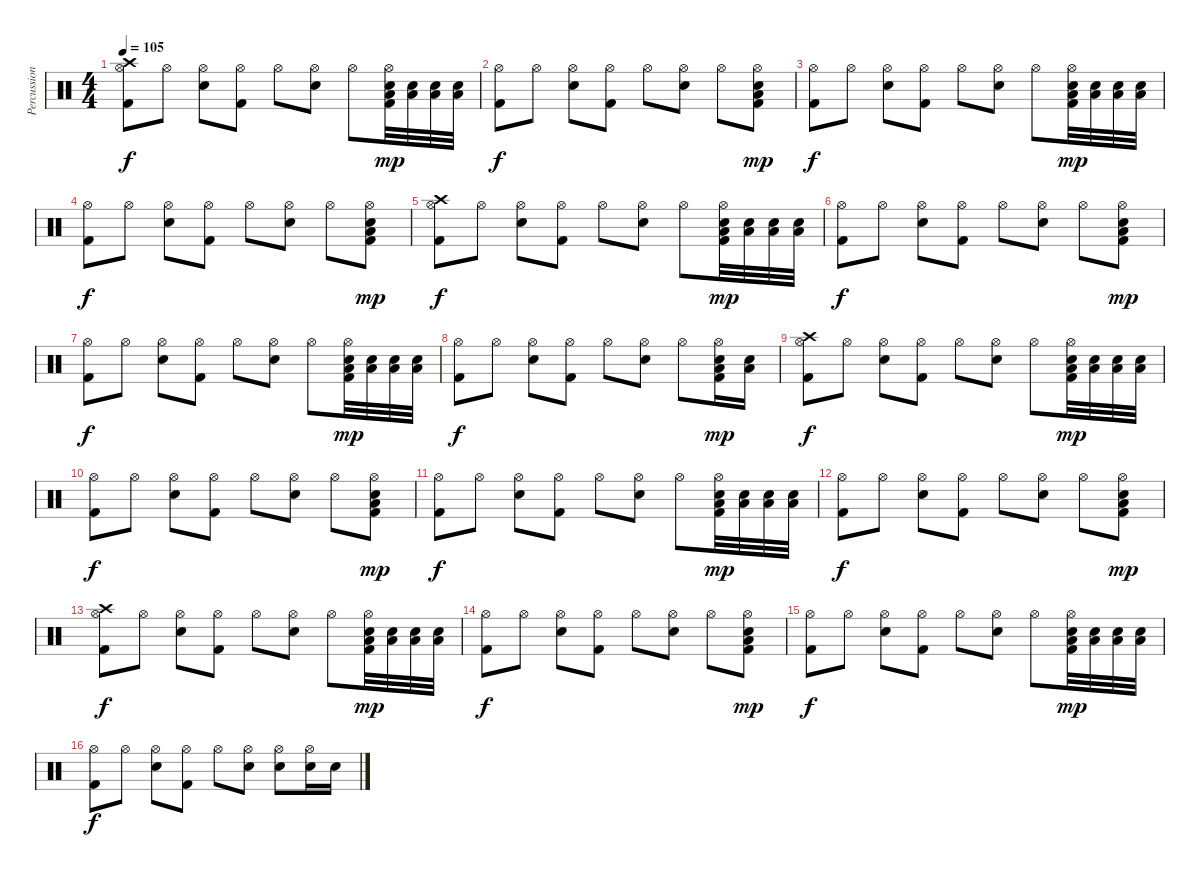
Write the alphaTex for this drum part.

\track ("Percussion" "Percussion") {instrument percussion}
\staff {score}
\articulation defaults
\ts (4 4)
\tempo 105
\clef neutral
\ks c
("Crash high (hit)" "Hi-Hat (open)" "Kick (hit) 2").8{dy f} "Hi-Hat (open)".8 ("Hi-Hat (open)" "Snare (hit) 2").8 ("Hi-Hat (open)" "Kick (hit) 2").8 "Hi-Hat (open)".8 ("Hi-Hat (open)" "Snare (hit) 2").8 "Hi-Hat (open)".8 ("Hi-Hat (open)" "Electric Snare (hit)" "Low Floor Tom (hit)" "Kick (hit) 2").32{dy mp} ("Electric Snare (hit)" "Low Floor Tom (hit)").32 ("Electric Snare (hit)" "Low Floor Tom (hit)").32 ("Electric Snare (hit)" "Low Floor Tom (hit)").32 |
("Hi-Hat (open)" "Kick (hit) 2").8{dy f} "Hi-Hat (open)".8 ("Hi-Hat (open)" "Snare (hit) 2").8 ("Hi-Hat (open)" "Kick (hit) 2").8 "Hi-Hat (open)".8 ("Hi-Hat (open)" "Snare (hit) 2").8 "Hi-Hat (open)".8 ("Hi-Hat (open)" "Electric Snare (hit)" "Low Floor Tom (hit)" "Kick (hit) 2").8{dy mp} |
("Hi-Hat (open)" "Kick (hit) 2").8{dy f} "Hi-Hat (open)".8 ("Hi-Hat (open)" "Snare (hit) 2").8 ("Hi-Hat (open)" "Kick (hit) 2").8 "Hi-Hat (open)".8 ("Hi-Hat (open)" "Snare (hit) 2").8 "Hi-Hat (open)".8 ("Hi-Hat (open)" "Electric Snare (hit)" "Low Floor Tom (hit)" "Kick (hit) 2").32{dy mp} ("Electric Snare (hit)" "Low Floor Tom (hit)").32 ("Electric Snare (hit)" "Low Floor Tom (hit)").32 ("Electric Snare (hit)" "Low Floor Tom (hit)").32 |
("Hi-Hat (open)" "Kick (hit) 2").8{dy f} "Hi-Hat (open)".8 ("Hi-Hat (open)" "Snare (hit) 2").8 ("Hi-Hat (open)" "Kick (hit) 2").8 "Hi-Hat (open)".8 ("Hi-Hat (open)" "Snare (hit) 2").8 "Hi-Hat (open)".8 ("Hi-Hat (open)" "Electric Snare (hit)" "Low Floor Tom (hit)" "Kick (hit) 2").8{dy mp} |
("Crash high (hit)" "Hi-Hat (open)" "Kick (hit) 2").8{dy f} "Hi-Hat (open)".8 ("Hi-Hat (open)" "Snare (hit) 2").8 ("Hi-Hat (open)" "Kick (hit) 2").8 "Hi-Hat (open)".8 ("Hi-Hat (open)" "Snare (hit) 2").8 "Hi-Hat (open)".8 ("Hi-Hat (open)" "Electric Snare (hit)" "Low Floor Tom (hit)" "Kick (hit) 2").32{dy mp} ("Electric Snare (hit)" "Low Floor Tom (hit)").32 ("Electric Snare (hit)" "Low Floor Tom (hit)").32 ("Electric Snare (hit)" "Low Floor Tom (hit)").32 |
("Hi-Hat (open)" "Kick (hit) 2").8{dy f} "Hi-Hat (open)".8 ("Hi-Hat (open)" "Snare (hit) 2").8 ("Hi-Hat (open)" "Kick (hit) 2").8 "Hi-Hat (open)".8 ("Hi-Hat (open)" "Snare (hit) 2").8 "Hi-Hat (open)".8 ("Hi-Hat (open)" "Electric Snare (hit)" "Low Floor Tom (hit)" "Kick (hit) 2").8{dy mp} |
("Hi-Hat (open)" "Kick (hit) 2").8{dy f} "Hi-Hat (open)".8 ("Hi-Hat (open)" "Snare (hit) 2").8 ("Hi-Hat (open)" "Kick (hit) 2").8 "Hi-Hat (open)".8 ("Hi-Hat (open)" "Snare (hit) 2").8 "Hi-Hat (open)".8 ("Hi-Hat (open)" "Electric Snare (hit)" "Low Floor Tom (hit)" "Kick (hit) 2").32{dy mp} ("Electric Snare (hit)" "Low Floor Tom (hit)").32 ("Electric Snare (hit)" "Low Floor Tom (hit)").32 ("Electric Snare (hit)" "Low Floor Tom (hit)").32 |
("Hi-Hat (open)" "Kick (hit) 2").8{dy f} "Hi-Hat (open)".8 ("Hi-Hat (open)" "Snare (hit) 2").8 ("Hi-Hat (open)" "Kick (hit) 2").8 "Hi-Hat (open)".8 ("Hi-Hat (open)" "Snare (hit) 2").8 "Hi-Hat (open)".8 ("Hi-Hat (open)" "Electric Snare (hit)" "Low Floor Tom (hit)" "Kick (hit) 2").16{dy mp} ("Electric Snare (hit)" "Low Floor Tom (hit)").16 |
("Crash high (hit)" "Hi-Hat (open)" "Kick (hit) 2").8{dy f} "Hi-Hat (open)".8 ("Hi-Hat (open)" "Snare (hit) 2").8 ("Hi-Hat (open)" "Kick (hit) 2").8 "Hi-Hat (open)".8 ("Hi-Hat (open)" "Snare (hit) 2").8 "Hi-Hat (open)".8 ("Hi-Hat (open)" "Electric Snare (hit)" "Low Floor Tom (hit)" "Kick (hit) 2").32{dy mp} ("Electric Snare (hit)" "Low Floor Tom (hit)").32 ("Electric Snare (hit)" "Low Floor Tom (hit)").32 ("Electric Snare (hit)" "Low Floor Tom (hit)").32 |
("Hi-Hat (open)" "Kick (hit) 2").8{dy f} "Hi-Hat (open)".8 ("Hi-Hat (open)" "Snare (hit) 2").8 ("Hi-Hat (open)" "Kick (hit) 2").8 "Hi-Hat (open)".8 ("Hi-Hat (open)" "Snare (hit) 2").8 "Hi-Hat (open)".8 ("Hi-Hat (open)" "Electric Snare (hit)" "Low Floor Tom (hit)" "Kick (hit) 2").8{dy mp} |
("Hi-Hat (open)" "Kick (hit) 2").8{dy f} "Hi-Hat (open)".8 ("Hi-Hat (open)" "Snare (hit) 2").8 ("Hi-Hat (open)" "Kick (hit) 2").8 "Hi-Hat (open)".8 ("Hi-Hat (open)" "Snare (hit) 2").8 "Hi-Hat (open)".8 ("Hi-Hat (open)" "Electric Snare (hit)" "Low Floor Tom (hit)" "Kick (hit) 2").32{dy mp} ("Electric Snare (hit)" "Low Floor Tom (hit)").32 ("Electric Snare (hit)" "Low Floor Tom (hit)").32 ("Electric Snare (hit)" "Low Floor Tom (hit)").32 |
("Hi-Hat (open)" "Kick (hit) 2").8{dy f} "Hi-Hat (open)".8 ("Hi-Hat (open)" "Snare (hit) 2").8 ("Hi-Hat (open)" "Kick (hit) 2").8 "Hi-Hat (open)".8 ("Hi-Hat (open)" "Snare (hit) 2").8 "Hi-Hat (open)".8 ("Hi-Hat (open)" "Electric Snare (hit)" "Low Floor Tom (hit)" "Kick (hit) 2").8{dy mp} |
("Crash high (hit)" "Hi-Hat (open)" "Kick (hit) 2").8{dy f} "Hi-Hat (open)".8 ("Hi-Hat (open)" "Snare (hit) 2").8 ("Hi-Hat (open)" "Kick (hit) 2").8 "Hi-Hat (open)".8 ("Hi-Hat (open)" "Snare (hit) 2").8 "Hi-Hat (open)".8 ("Hi-Hat (open)" "Electric Snare (hit)" "Low Floor Tom (hit)" "Kick (hit) 2").32{dy mp} ("Electric Snare (hit)" "Low Floor Tom (hit)").32 ("Electric Snare (hit)" "Low Floor Tom (hit)").32 ("Electric Snare (hit)" "Low Floor Tom (hit)").32 |
("Hi-Hat (open)" "Kick (hit) 2").8{dy f} "Hi-Hat (open)".8 ("Hi-Hat (open)" "Snare (hit) 2").8 ("Hi-Hat (open)" "Kick (hit) 2").8 "Hi-Hat (open)".8 ("Hi-Hat (open)" "Snare (hit) 2").8 "Hi-Hat (open)".8 ("Hi-Hat (open)" "Electric Snare (hit)" "Low Floor Tom (hit)" "Kick (hit) 2").8{dy mp} |
("Hi-Hat (open)" "Kick (hit) 2").8{dy f} "Hi-Hat (open)".8 ("Hi-Hat (open)" "Snare (hit) 2").8 ("Hi-Hat (open)" "Kick (hit) 2").8 "Hi-Hat (open)".8 ("Hi-Hat (open)" "Snare (hit) 2").8 "Hi-Hat (open)".8 ("Hi-Hat (open)" "Electric Snare (hit)" "Low Floor Tom (hit)" "Kick (hit) 2").32{dy mp} ("Electric Snare (hit)" "Low Floor Tom (hit)").32 ("Electric Snare (hit)" "Low Floor Tom (hit)").32 ("Electric Snare (hit)" "Low Floor Tom (hit)").32 |
("Hi-Hat (open)" "Kick (hit) 2").8{dy f} "Hi-Hat (open)".8 ("Hi-Hat (open)" "Snare (hit) 2").8 ("Hi-Hat (open)" "Kick (hit) 2").8 "Hi-Hat (open)".8 ("Hi-Hat (open)" "Snare (hit) 2").8 ("Hi-Hat (open)" "Snare (hit) 2").8 ("Hi-Hat (open)" "Snare (hit) 2").16 "Snare (hit) 2".16
